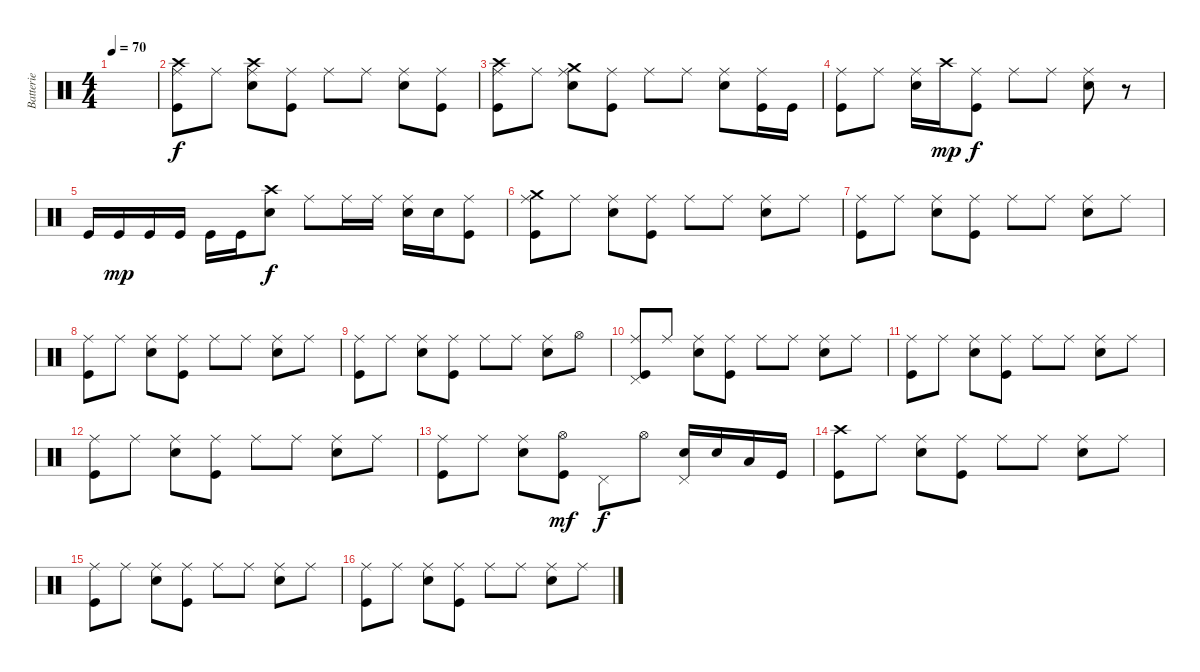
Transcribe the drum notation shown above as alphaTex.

\track ("Batterie" "Batterie") {instrument percussion}
\staff {score}
\articulation defaults
\ts (4 4)
\tempo 70
\clef neutral
\ks c
|
("Ride (middle)" "Crash high (hit)" "Kick (hit)").8 "Ride (middle)".8 ("Ride (middle)" "Crash high (hit)" "Snare (hit) 2").8 ("Ride (middle)" "Kick (hit)").8 "Ride (middle)".8 "Ride (middle)".8 ("Ride (middle)" "Snare (hit) 2").8 ("Ride (middle)" "Kick (hit)").8 |
("Ride (middle)" "Crash high (hit)" "Kick (hit)").8 "Ride (middle)".8 ("Ride (middle)" "Crash medium (hit)" "Snare (hit) 2").8 ("Ride (middle)" "Kick (hit)").8 "Ride (middle)".8 "Ride (middle)".8 ("Ride (middle)" "Snare (hit) 2").8 ("Ride (middle)" "Kick (hit)").16 "Kick (hit)".16 |
("Ride (middle)" "Kick (hit)").8 "Ride (middle)".8 ("Ride (middle)" "Snare (hit) 2").16 "Crash high (hit)".16{dy mp} ("Ride (middle)" "Kick (hit)").8{dy f} "Ride (middle)".8 "Ride (middle)".8 ("Ride (middle)" "Snare (hit) 2").8 r.8 |
"Kick (hit)".16 "Kick (hit)".16{dy mp} "Kick (hit)".16 "Kick (hit)".16 "Kick (hit)".16 "Kick (hit)".16 ("Crash high (hit)" "Snare (hit) 2").8{dy f} "Ride (middle)".8 "Ride (middle)".16 "Ride (middle)".16 ("Ride (middle)" "Snare (hit) 2").16 "Snare (hit) 2".16 ("Ride (middle)" "Kick (hit)").8 |
("Ride (middle)" "Crash medium (hit)" "Kick (hit)").8 "Ride (middle)".8 ("Ride (middle)" "Snare (hit) 2").8 ("Ride (middle)" "Kick (hit)").8 "Ride (middle)".8 "Ride (middle)".8 ("Ride (middle)" "Snare (hit) 2").8 "Ride (middle)".8 |
("Ride (middle)" "Kick (hit)").8 "Ride (middle)".8 ("Ride (middle)" "Snare (hit) 2").8 ("Ride (middle)" "Kick (hit)").8 "Ride (middle)".8 "Ride (middle)".8 ("Ride (middle)" "Snare (hit) 2").8 "Ride (middle)".8 |
("Ride (middle)" "Kick (hit)").8 "Ride (middle)".8 ("Ride (middle)" "Snare (hit) 2").8 ("Ride (middle)" "Kick (hit)").8 "Ride (middle)".8 "Ride (middle)".8 ("Ride (middle)" "Snare (hit) 2").8 "Ride (middle)".8 |
("Ride (middle)" "Kick (hit)").8 "Ride (middle)".8 ("Ride (middle)" "Snare (hit) 2").8 ("Ride (middle)" "Kick (hit)").8 "Ride (middle)".8 "Ride (middle)".8 ("Ride (middle)" "Snare (hit) 2").8 "Hi-Hat (open)".8 |
("Pedal Hi-Hat (hit)" "Ride (middle)" "Kick (hit)").8 "Ride (middle)".8 ("Ride (middle)" "Snare (hit) 2").8 ("Ride (middle)" "Kick (hit)").8 "Ride (middle)".8 "Ride (middle)".8 ("Ride (middle)" "Snare (hit) 2").8 "Ride (middle)".8 |
("Ride (middle)" "Kick (hit)").8 "Ride (middle)".8 ("Ride (middle)" "Snare (hit) 2").8 ("Ride (middle)" "Kick (hit)").8 "Ride (middle)".8 "Ride (middle)".8 ("Ride (middle)" "Snare (hit) 2").8 "Ride (middle)".8 |
("Ride (middle)" "Kick (hit)").8 "Ride (middle)".8 ("Ride (middle)" "Snare (hit) 2").8 ("Ride (middle)" "Kick (hit)").8 "Ride (middle)".8 "Ride (middle)".8 ("Ride (middle)" "Snare (hit) 2").8 "Ride (middle)".8 |
("Ride (middle)" "Kick (hit)").8 "Ride (middle)".8 ("Ride (middle)" "Snare (hit) 2").8 ("Hi-Hat (open)" "Kick (hit)").8{dy mf} "Pedal Hi-Hat (hit)".8{dy f} "Hi-Hat (open)".8 ("Pedal Hi-Hat (hit)" "Snare (hit) 2").16 "Snare (hit) 2".16 "Low Tom (hit)".16 "Kick (hit)".16 |
("Crash high (hit)" "Kick (hit)").8 "Ride (middle)".8 ("Ride (middle)" "Snare (hit) 2").8 ("Ride (middle)" "Kick (hit)").8 "Ride (middle)".8 "Ride (middle)".8 ("Ride (middle)" "Snare (hit) 2").8 "Ride (middle)".8 |
("Ride (middle)" "Kick (hit)").8 "Ride (middle)".8 ("Ride (middle)" "Snare (hit) 2").8 ("Ride (middle)" "Kick (hit)").8 "Ride (middle)".8 "Ride (middle)".8 ("Ride (middle)" "Snare (hit) 2").8 "Ride (middle)".8 |
("Ride (middle)" "Kick (hit)").8 "Ride (middle)".8 ("Ride (middle)" "Snare (hit) 2").8 ("Ride (middle)" "Kick (hit)").8 "Ride (middle)".8 "Ride (middle)".8 ("Ride (middle)" "Snare (hit) 2").8 "Ride (middle)".8
